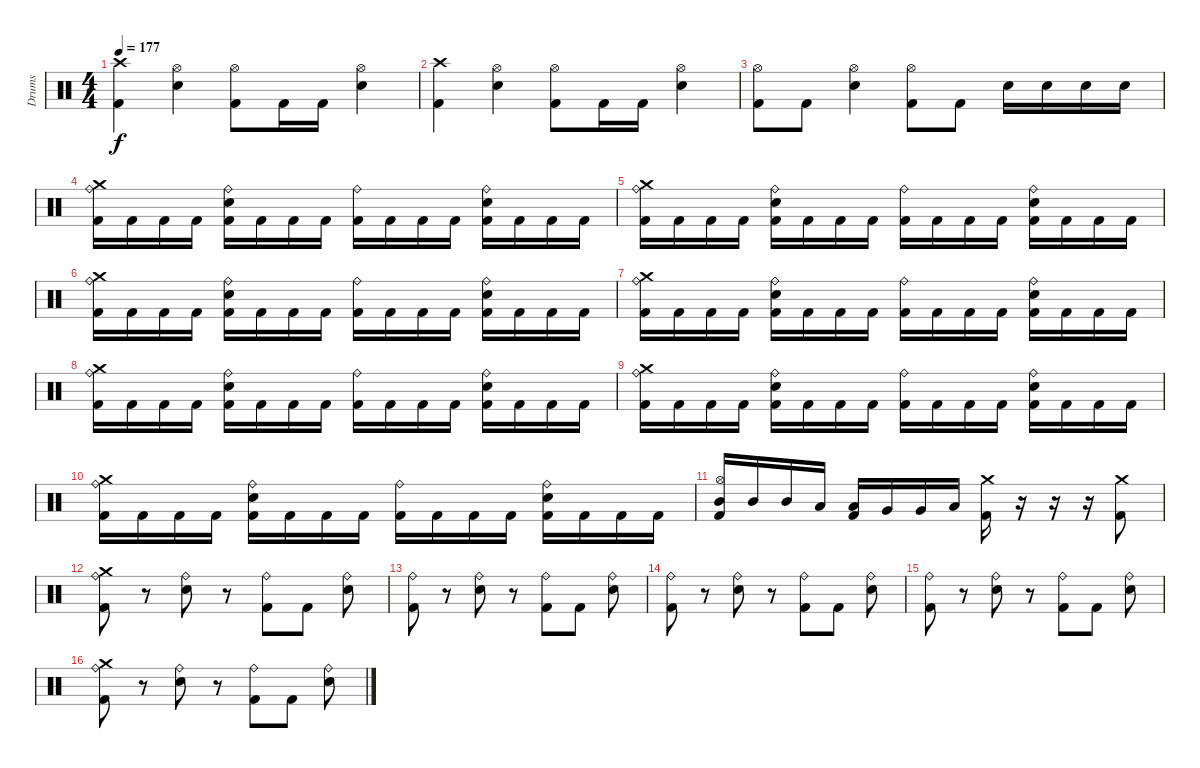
\track ("Drums" "Drums") {instrument percussion}
\staff {score}
\articulation defaults
\ts (4 4)
\tempo 177
\clef neutral
\ks c
("Kick (hit) 2" "Crash high (hit)").4{dy f} ("Snare (hit) 2" "Hi-Hat (open)").4 ("Kick (hit) 2" "Hi-Hat (open)").8 "Kick (hit) 2".16 "Kick (hit) 2".16 ("Snare (hit) 2" "Hi-Hat (open)").4 |
("Kick (hit) 2" "Crash high (hit)").4 ("Snare (hit) 2" "Hi-Hat (open)").4 ("Kick (hit) 2" "Hi-Hat (open)").8 "Kick (hit) 2".16 "Kick (hit) 2".16 ("Snare (hit) 2" "Hi-Hat (open)").4 |
("Hi-Hat (open)" "Kick (hit) 2").8 "Kick (hit) 2".8 ("Snare (hit) 2" "Hi-Hat (open)").4 ("Kick (hit) 2" "Hi-Hat (open)").8 "Kick (hit) 2".8 "Snare (hit) 2".16 "Snare (hit) 2".16 "Snare (hit) 2".16 "Snare (hit) 2".16 |
("Ride (bell)" "Crash medium (hit)" "Kick (hit) 2").16 "Kick (hit) 2".16 "Kick (hit) 2".16 "Kick (hit) 2".16 ("Ride (bell)" "Snare (hit) 2" "Kick (hit) 2").16 "Kick (hit) 2".16 "Kick (hit) 2".16 "Kick (hit) 2".16 ("Ride (bell)" "Kick (hit) 2").16 "Kick (hit) 2".16 "Kick (hit) 2".16 "Kick (hit) 2".16 ("Ride (bell)" "Snare (hit) 2" "Kick (hit) 2").16 "Kick (hit) 2".16 "Kick (hit) 2".16 "Kick (hit) 2".16 |
("Ride (bell)" "Crash medium (hit)" "Kick (hit) 2").16 "Kick (hit) 2".16 "Kick (hit) 2".16 "Kick (hit) 2".16 ("Ride (bell)" "Snare (hit) 2" "Kick (hit) 2").16 "Kick (hit) 2".16 "Kick (hit) 2".16 "Kick (hit) 2".16 ("Ride (bell)" "Kick (hit) 2").16 "Kick (hit) 2".16 "Kick (hit) 2".16 "Kick (hit) 2".16 ("Ride (bell)" "Snare (hit) 2" "Kick (hit) 2").16 "Kick (hit) 2".16 "Kick (hit) 2".16 "Kick (hit) 2".16 |
("Ride (bell)" "Crash medium (hit)" "Kick (hit) 2").16 "Kick (hit) 2".16 "Kick (hit) 2".16 "Kick (hit) 2".16 ("Ride (bell)" "Snare (hit) 2" "Kick (hit) 2").16 "Kick (hit) 2".16 "Kick (hit) 2".16 "Kick (hit) 2".16 ("Ride (bell)" "Kick (hit) 2").16 "Kick (hit) 2".16 "Kick (hit) 2".16 "Kick (hit) 2".16 ("Ride (bell)" "Snare (hit) 2" "Kick (hit) 2").16 "Kick (hit) 2".16 "Kick (hit) 2".16 "Kick (hit) 2".16 |
("Ride (bell)" "Crash medium (hit)" "Kick (hit) 2").16 "Kick (hit) 2".16 "Kick (hit) 2".16 "Kick (hit) 2".16 ("Ride (bell)" "Snare (hit) 2" "Kick (hit) 2").16 "Kick (hit) 2".16 "Kick (hit) 2".16 "Kick (hit) 2".16 ("Ride (bell)" "Kick (hit) 2").16 "Kick (hit) 2".16 "Kick (hit) 2".16 "Kick (hit) 2".16 ("Ride (bell)" "Snare (hit) 2" "Kick (hit) 2").16 "Kick (hit) 2".16 "Kick (hit) 2".16 "Kick (hit) 2".16 |
("Ride (bell)" "Crash medium (hit)" "Kick (hit) 2").16 "Kick (hit) 2".16 "Kick (hit) 2".16 "Kick (hit) 2".16 ("Ride (bell)" "Snare (hit) 2" "Kick (hit) 2").16 "Kick (hit) 2".16 "Kick (hit) 2".16 "Kick (hit) 2".16 ("Ride (bell)" "Kick (hit) 2").16 "Kick (hit) 2".16 "Kick (hit) 2".16 "Kick (hit) 2".16 ("Ride (bell)" "Snare (hit) 2" "Kick (hit) 2").16 "Kick (hit) 2".16 "Kick (hit) 2".16 "Kick (hit) 2".16 |
("Ride (bell)" "Crash medium (hit)" "Kick (hit) 2").16 "Kick (hit) 2".16 "Kick (hit) 2".16 "Kick (hit) 2".16 ("Ride (bell)" "Snare (hit) 2" "Kick (hit) 2").16 "Kick (hit) 2".16 "Kick (hit) 2".16 "Kick (hit) 2".16 ("Ride (bell)" "Kick (hit) 2").16 "Kick (hit) 2".16 "Kick (hit) 2".16 "Kick (hit) 2".16 ("Ride (bell)" "Snare (hit) 2" "Kick (hit) 2").16 "Kick (hit) 2".16 "Kick (hit) 2".16 "Kick (hit) 2".16 |
("Ride (bell)" "Crash medium (hit)" "Kick (hit) 2").16 "Kick (hit) 2".16 "Kick (hit) 2".16 "Kick (hit) 2".16 ("Ride (bell)" "Snare (hit) 2" "Kick (hit) 2").16 "Kick (hit) 2".16 "Kick (hit) 2".16 "Kick (hit) 2".16 ("Ride (bell)" "Kick (hit) 2").16 "Kick (hit) 2".16 "Kick (hit) 2".16 "Kick (hit) 2".16 ("Ride (bell)" "Snare (hit) 2" "Kick (hit) 2").16 "Kick (hit) 2".16 "Kick (hit) 2".16 "Kick (hit) 2".16 |
("Hi-Hat (open)" "Mid Tom (hit)" "Kick (hit) 2").16 "Mid Tom (hit)".16 "Mid Tom (hit)".16 "Low Tom (hit)".16 ("Low Tom (hit)" "Kick (hit) 2").16 "Very Low Tom (hit)".16 "Very Low Tom (hit)".16 "Low Tom (hit)".16 ("Crash medium (hit)" "Kick (hit) 2").16 r.16 r.16 r.16 ("Crash medium (hit)" "Kick (hit) 2").8 |
("Ride (bell)" "Crash medium (hit)" "Kick (hit) 2").8 r.8 ("Ride (bell)" "Snare (hit) 2").8 r.8 ("Ride (bell)" "Kick (hit) 2").8 "Kick (hit) 2".8 ("Ride (bell)" "Snare (hit) 2").8 |
("Ride (bell)" "Kick (hit) 2").8 r.8 ("Ride (bell)" "Snare (hit) 2").8 r.8 ("Ride (bell)" "Kick (hit) 2").8 "Kick (hit) 2".8 ("Ride (bell)" "Snare (hit) 2").8 |
("Ride (bell)" "Kick (hit) 2").8 r.8 ("Ride (bell)" "Snare (hit) 2").8 r.8 ("Ride (bell)" "Kick (hit) 2").8 "Kick (hit) 2".8 ("Ride (bell)" "Snare (hit) 2").8 |
("Ride (bell)" "Kick (hit) 2").8 r.8 ("Ride (bell)" "Snare (hit) 2").8 r.8 ("Ride (bell)" "Kick (hit) 2").8 "Kick (hit) 2".8 ("Ride (bell)" "Snare (hit) 2").8 |
("Ride (bell)" "Crash medium (hit)" "Kick (hit) 2").8 r.8 ("Ride (bell)" "Snare (hit) 2").8 r.8 ("Ride (bell)" "Kick (hit) 2").8 "Kick (hit) 2".8 ("Ride (bell)" "Snare (hit) 2").8
